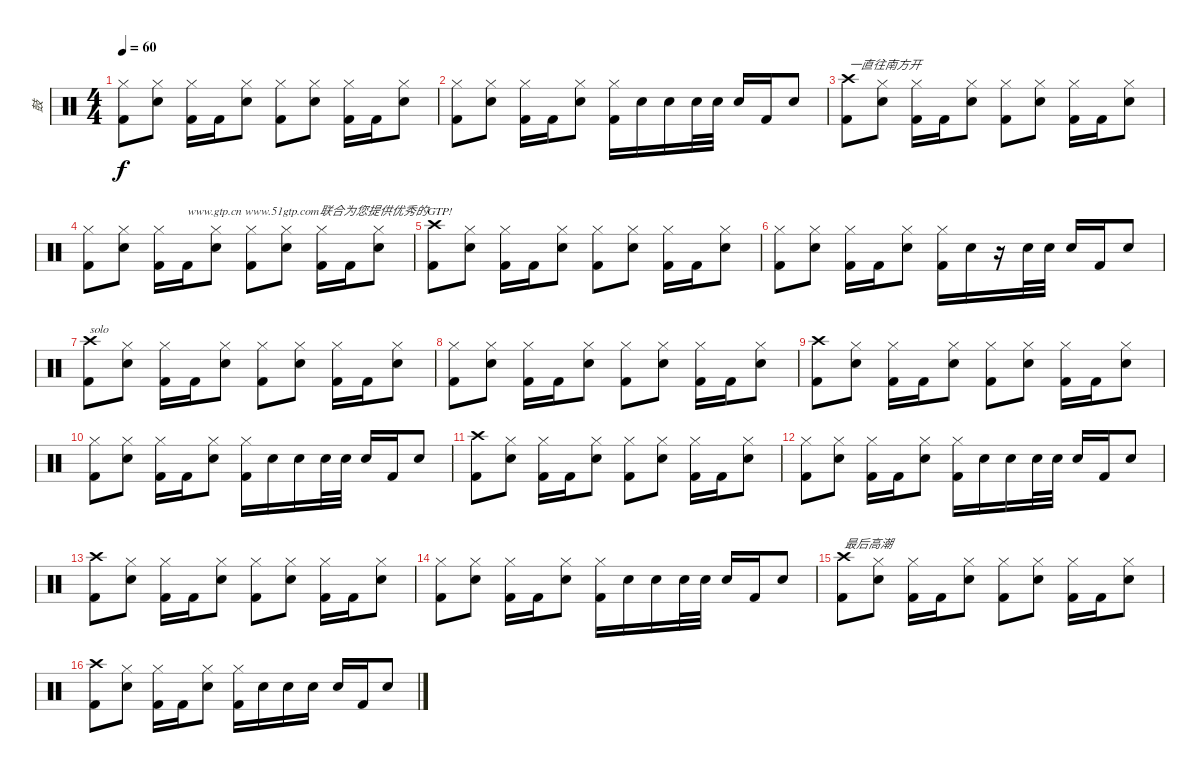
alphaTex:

\track ("鼓" "鼓") {instrument percussion}
\staff {score}
\articulation defaults
\ts (4 4)
\tempo 60
\clef neutral
\ks c
("Hi-Hat (closed)" "Kick (hit) 2").8{dy f} ("Hi-Hat (closed)" "Snare (hit) 2").8 ("Hi-Hat (closed)" "Kick (hit) 2").16 "Kick (hit) 2".16 ("Hi-Hat (closed)" "Snare (hit) 2").8 ("Hi-Hat (closed)" "Kick (hit) 2").8 ("Hi-Hat (closed)" "Snare (hit) 2").8 ("Hi-Hat (closed)" "Kick (hit) 2").16 "Kick (hit) 2".16 ("Hi-Hat (closed)" "Snare (hit) 2").8 |
("Hi-Hat (closed)" "Kick (hit) 2").8 ("Hi-Hat (closed)" "Snare (hit) 2").8 ("Hi-Hat (closed)" "Kick (hit) 2").16 "Kick (hit) 2".16 ("Hi-Hat (closed)" "Snare (hit) 2").8 ("Hi-Hat (closed)" "Kick (hit) 2").16 "Snare (hit) 2".16 "Snare (hit) 2".16 "Snare (hit) 2".32 "Snare (hit) 2".32 "Snare (hit) 2".16 "Kick (hit) 2".16 "Snare (hit) 2".8 |
("Crash high (hit)" "Kick (hit) 2").8{txt "一直往南方开"} ("Hi-Hat (closed)" "Snare (hit) 2").8 ("Hi-Hat (closed)" "Kick (hit) 2").16 "Kick (hit) 2".16 ("Hi-Hat (closed)" "Snare (hit) 2").8 ("Hi-Hat (closed)" "Kick (hit) 2").8 ("Hi-Hat (closed)" "Snare (hit) 2").8 ("Hi-Hat (closed)" "Kick (hit) 2").16 "Kick (hit) 2".16 ("Hi-Hat (closed)" "Snare (hit) 2").8 |
("Hi-Hat (closed)" "Kick (hit) 2").8 ("Hi-Hat (closed)" "Snare (hit) 2").8 ("Hi-Hat (closed)" "Kick (hit) 2").16 "Kick (hit) 2".16{txt "www.gtp.cn www.51gtp.com联合为您提供优秀的GTP!"} ("Hi-Hat (closed)" "Snare (hit) 2").8 ("Hi-Hat (closed)" "Kick (hit) 2").8 ("Hi-Hat (closed)" "Snare (hit) 2").8 ("Hi-Hat (closed)" "Kick (hit) 2").16 "Kick (hit) 2".16 ("Hi-Hat (closed)" "Snare (hit) 2").8 |
("Crash high (hit)" "Kick (hit) 2").8 ("Hi-Hat (closed)" "Snare (hit) 2").8 ("Hi-Hat (closed)" "Kick (hit) 2").16 "Kick (hit) 2".16 ("Hi-Hat (closed)" "Snare (hit) 2").8 ("Hi-Hat (closed)" "Kick (hit) 2").8 ("Hi-Hat (closed)" "Snare (hit) 2").8 ("Hi-Hat (closed)" "Kick (hit) 2").16 "Kick (hit) 2".16 ("Hi-Hat (closed)" "Snare (hit) 2").8 |
("Hi-Hat (closed)" "Kick (hit) 2").8 ("Hi-Hat (closed)" "Snare (hit) 2").8 ("Hi-Hat (closed)" "Kick (hit) 2").16 "Kick (hit) 2".16 ("Hi-Hat (closed)" "Snare (hit) 2").8 ("Hi-Hat (closed)" "Kick (hit) 2").16 "Snare (hit) 2".16 r.16 "Snare (hit) 2".32 "Snare (hit) 2".32 "Snare (hit) 2".16 "Kick (hit) 2".16 "Snare (hit) 2".8 |
("Crash high (hit)" "Kick (hit) 2").8{txt "solo"} ("Hi-Hat (closed)" "Snare (hit) 2").8 ("Hi-Hat (closed)" "Kick (hit) 2").16 "Kick (hit) 2".16 ("Hi-Hat (closed)" "Snare (hit) 2").8 ("Hi-Hat (closed)" "Kick (hit) 2").8 ("Hi-Hat (closed)" "Snare (hit) 2").8 ("Hi-Hat (closed)" "Kick (hit) 2").16 "Kick (hit) 2".16 ("Hi-Hat (closed)" "Snare (hit) 2").8 |
("Hi-Hat (closed)" "Kick (hit) 2").8 ("Hi-Hat (closed)" "Snare (hit) 2").8 ("Hi-Hat (closed)" "Kick (hit) 2").16 "Kick (hit) 2".16 ("Hi-Hat (closed)" "Snare (hit) 2").8 ("Hi-Hat (closed)" "Kick (hit) 2").8 ("Hi-Hat (closed)" "Snare (hit) 2").8 ("Hi-Hat (closed)" "Kick (hit) 2").16 "Kick (hit) 2".16 ("Hi-Hat (closed)" "Snare (hit) 2").8 |
("Crash high (hit)" "Kick (hit) 2").8 ("Hi-Hat (closed)" "Snare (hit) 2").8 ("Hi-Hat (closed)" "Kick (hit) 2").16 "Kick (hit) 2".16 ("Hi-Hat (closed)" "Snare (hit) 2").8 ("Hi-Hat (closed)" "Kick (hit) 2").8 ("Hi-Hat (closed)" "Snare (hit) 2").8 ("Hi-Hat (closed)" "Kick (hit) 2").16 "Kick (hit) 2".16 ("Hi-Hat (closed)" "Snare (hit) 2").8 |
("Hi-Hat (closed)" "Kick (hit) 2").8 ("Hi-Hat (closed)" "Snare (hit) 2").8 ("Hi-Hat (closed)" "Kick (hit) 2").16 "Kick (hit) 2".16 ("Hi-Hat (closed)" "Snare (hit) 2").8 ("Hi-Hat (closed)" "Kick (hit) 2").16 "Snare (hit) 2".16 "Snare (hit) 2".16 "Snare (hit) 2".32 "Snare (hit) 2".32 "Snare (hit) 2".16 "Kick (hit) 2".16 "Snare (hit) 2".8 |
("Crash high (hit)" "Kick (hit) 2").8 ("Hi-Hat (closed)" "Snare (hit) 2").8 ("Hi-Hat (closed)" "Kick (hit) 2").16 "Kick (hit) 2".16 ("Hi-Hat (closed)" "Snare (hit) 2").8 ("Hi-Hat (closed)" "Kick (hit) 2").8 ("Hi-Hat (closed)" "Snare (hit) 2").8 ("Hi-Hat (closed)" "Kick (hit) 2").16 "Kick (hit) 2".16 ("Hi-Hat (closed)" "Snare (hit) 2").8 |
("Hi-Hat (closed)" "Kick (hit) 2").8 ("Hi-Hat (closed)" "Snare (hit) 2").8 ("Hi-Hat (closed)" "Kick (hit) 2").16 "Kick (hit) 2".16 ("Hi-Hat (closed)" "Snare (hit) 2").8 ("Hi-Hat (closed)" "Kick (hit) 2").16 "Snare (hit) 2".16 "Snare (hit) 2".16 "Snare (hit) 2".32 "Snare (hit) 2".32 "Snare (hit) 2".16 "Kick (hit) 2".16 "Snare (hit) 2".8 |
("Crash high (hit)" "Kick (hit) 2").8 ("Hi-Hat (closed)" "Snare (hit) 2").8 ("Hi-Hat (closed)" "Kick (hit) 2").16 "Kick (hit) 2".16 ("Hi-Hat (closed)" "Snare (hit) 2").8 ("Hi-Hat (closed)" "Kick (hit) 2").8 ("Hi-Hat (closed)" "Snare (hit) 2").8 ("Hi-Hat (closed)" "Kick (hit) 2").16 "Kick (hit) 2".16 ("Hi-Hat (closed)" "Snare (hit) 2").8 |
("Hi-Hat (closed)" "Kick (hit) 2").8 ("Hi-Hat (closed)" "Snare (hit) 2").8 ("Hi-Hat (closed)" "Kick (hit) 2").16 "Kick (hit) 2".16 ("Hi-Hat (closed)" "Snare (hit) 2").8 ("Hi-Hat (closed)" "Kick (hit) 2").16 "Snare (hit) 2".16 "Snare (hit) 2".16 "Snare (hit) 2".32 "Snare (hit) 2".32 "Snare (hit) 2".16 "Kick (hit) 2".16 "Snare (hit) 2".8 |
("Crash high (hit)" "Kick (hit) 2").8{txt "最后高潮"} ("Hi-Hat (closed)" "Snare (hit) 2").8 ("Hi-Hat (closed)" "Kick (hit) 2").16 "Kick (hit) 2".16 ("Hi-Hat (closed)" "Snare (hit) 2").8 ("Hi-Hat (closed)" "Kick (hit) 2").8 ("Hi-Hat (closed)" "Snare (hit) 2").8 ("Hi-Hat (closed)" "Kick (hit) 2").16 "Kick (hit) 2".16 ("Hi-Hat (closed)" "Snare (hit) 2").8 |
("Crash high (hit)" "Kick (hit) 2").8 ("Hi-Hat (closed)" "Snare (hit) 2").8 ("Hi-Hat (closed)" "Kick (hit) 2").16 "Kick (hit) 2".16 ("Hi-Hat (closed)" "Snare (hit) 2").8 ("Hi-Hat (closed)" "Kick (hit) 2").16 "Snare (hit) 2".16 "Snare (hit) 2".16 "Snare (hit) 2".16 "Snare (hit) 2".16 "Kick (hit) 2".16 "Snare (hit) 2".8
